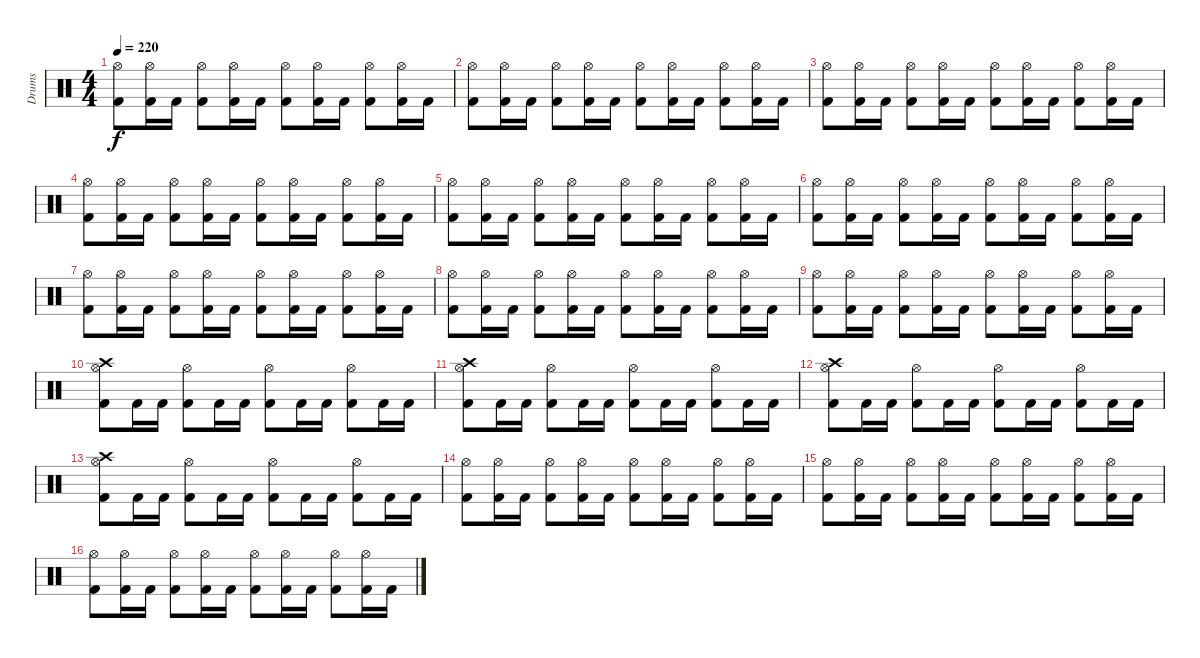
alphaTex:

\track ("Drums" "Drums") {instrument percussion}
\staff {score}
\articulation defaults
\ts (4 4)
\tempo 220
\clef neutral
\ks c
("Hi-Hat (open)" "Kick (hit) 2").8{dy f} ("Hi-Hat (open)" "Kick (hit) 2").16 "Kick (hit) 2".16 ("Hi-Hat (open)" "Kick (hit) 2").8 ("Hi-Hat (open)" "Kick (hit) 2").16 "Kick (hit) 2".16 ("Hi-Hat (open)" "Kick (hit) 2").8 ("Hi-Hat (open)" "Kick (hit) 2").16 "Kick (hit) 2".16 ("Hi-Hat (open)" "Kick (hit) 2").8 ("Hi-Hat (open)" "Kick (hit) 2").16 "Kick (hit) 2".16 |
("Hi-Hat (open)" "Kick (hit) 2").8 ("Hi-Hat (open)" "Kick (hit) 2").16 "Kick (hit) 2".16 ("Hi-Hat (open)" "Kick (hit) 2").8 ("Hi-Hat (open)" "Kick (hit) 2").16 "Kick (hit) 2".16 ("Hi-Hat (open)" "Kick (hit) 2").8 ("Hi-Hat (open)" "Kick (hit) 2").16 "Kick (hit) 2".16 ("Hi-Hat (open)" "Kick (hit) 2").8 ("Hi-Hat (open)" "Kick (hit) 2").16 "Kick (hit) 2".16 |
("Hi-Hat (open)" "Kick (hit) 2").8 ("Hi-Hat (open)" "Kick (hit) 2").16 "Kick (hit) 2".16 ("Hi-Hat (open)" "Kick (hit) 2").8 ("Hi-Hat (open)" "Kick (hit) 2").16 "Kick (hit) 2".16 ("Hi-Hat (open)" "Kick (hit) 2").8 ("Hi-Hat (open)" "Kick (hit) 2").16 "Kick (hit) 2".16 ("Hi-Hat (open)" "Kick (hit) 2").8 ("Hi-Hat (open)" "Kick (hit) 2").16 "Kick (hit) 2".16 |
("Hi-Hat (open)" "Kick (hit) 2").8 ("Hi-Hat (open)" "Kick (hit) 2").16 "Kick (hit) 2".16 ("Hi-Hat (open)" "Kick (hit) 2").8 ("Hi-Hat (open)" "Kick (hit) 2").16 "Kick (hit) 2".16 ("Hi-Hat (open)" "Kick (hit) 2").8 ("Hi-Hat (open)" "Kick (hit) 2").16 "Kick (hit) 2".16 ("Hi-Hat (open)" "Kick (hit) 2").8 ("Hi-Hat (open)" "Kick (hit) 2").16 "Kick (hit) 2".16 |
("Hi-Hat (open)" "Kick (hit) 2").8 ("Hi-Hat (open)" "Kick (hit) 2").16 "Kick (hit) 2".16 ("Hi-Hat (open)" "Kick (hit) 2").8 ("Hi-Hat (open)" "Kick (hit) 2").16 "Kick (hit) 2".16 ("Hi-Hat (open)" "Kick (hit) 2").8 ("Hi-Hat (open)" "Kick (hit) 2").16 "Kick (hit) 2".16 ("Hi-Hat (open)" "Kick (hit) 2").8 ("Hi-Hat (open)" "Kick (hit) 2").16 "Kick (hit) 2".16 |
("Hi-Hat (open)" "Kick (hit) 2").8 ("Hi-Hat (open)" "Kick (hit) 2").16 "Kick (hit) 2".16 ("Hi-Hat (open)" "Kick (hit) 2").8 ("Hi-Hat (open)" "Kick (hit) 2").16 "Kick (hit) 2".16 ("Hi-Hat (open)" "Kick (hit) 2").8 ("Hi-Hat (open)" "Kick (hit) 2").16 "Kick (hit) 2".16 ("Hi-Hat (open)" "Kick (hit) 2").8 ("Hi-Hat (open)" "Kick (hit) 2").16 "Kick (hit) 2".16 |
("Hi-Hat (open)" "Kick (hit) 2").8 ("Hi-Hat (open)" "Kick (hit) 2").16 "Kick (hit) 2".16 ("Hi-Hat (open)" "Kick (hit) 2").8 ("Hi-Hat (open)" "Kick (hit) 2").16 "Kick (hit) 2".16 ("Hi-Hat (open)" "Kick (hit) 2").8 ("Hi-Hat (open)" "Kick (hit) 2").16 "Kick (hit) 2".16 ("Hi-Hat (open)" "Kick (hit) 2").8 ("Hi-Hat (open)" "Kick (hit) 2").16 "Kick (hit) 2".16 |
("Hi-Hat (open)" "Kick (hit) 2").8 ("Hi-Hat (open)" "Kick (hit) 2").16 "Kick (hit) 2".16 ("Hi-Hat (open)" "Kick (hit) 2").8 ("Hi-Hat (open)" "Kick (hit) 2").16 "Kick (hit) 2".16 ("Hi-Hat (open)" "Kick (hit) 2").8 ("Hi-Hat (open)" "Kick (hit) 2").16 "Kick (hit) 2".16 ("Hi-Hat (open)" "Kick (hit) 2").8 ("Hi-Hat (open)" "Kick (hit) 2").16 "Kick (hit) 2".16 |
("Hi-Hat (open)" "Kick (hit) 2").8 ("Hi-Hat (open)" "Kick (hit) 2").16 "Kick (hit) 2".16 ("Hi-Hat (open)" "Kick (hit) 2").8 ("Hi-Hat (open)" "Kick (hit) 2").16 "Kick (hit) 2".16 ("Hi-Hat (open)" "Kick (hit) 2").8 ("Hi-Hat (open)" "Kick (hit) 2").16 "Kick (hit) 2".16 ("Hi-Hat (open)" "Kick (hit) 2").8 ("Hi-Hat (open)" "Kick (hit) 2").16 "Kick (hit) 2".16 |
("Crash high (hit)" "Hi-Hat (open)" "Kick (hit) 2").8 "Kick (hit) 2".16 "Kick (hit) 2".16 ("Hi-Hat (open)" "Kick (hit) 2").8 "Kick (hit) 2".16 "Kick (hit) 2".16 ("Hi-Hat (open)" "Kick (hit) 2").8 "Kick (hit) 2".16 "Kick (hit) 2".16 ("Hi-Hat (open)" "Kick (hit) 2").8 "Kick (hit) 2".16 "Kick (hit) 2".16 |
("Crash high (hit)" "Hi-Hat (open)" "Kick (hit) 2").8 "Kick (hit) 2".16 "Kick (hit) 2".16 ("Hi-Hat (open)" "Kick (hit) 2").8 "Kick (hit) 2".16 "Kick (hit) 2".16 ("Hi-Hat (open)" "Kick (hit) 2").8 "Kick (hit) 2".16 "Kick (hit) 2".16 ("Hi-Hat (open)" "Kick (hit) 2").8 "Kick (hit) 2".16 "Kick (hit) 2".16 |
("Crash high (hit)" "Hi-Hat (open)" "Kick (hit) 2").8 "Kick (hit) 2".16 "Kick (hit) 2".16 ("Hi-Hat (open)" "Kick (hit) 2").8 "Kick (hit) 2".16 "Kick (hit) 2".16 ("Hi-Hat (open)" "Kick (hit) 2").8 "Kick (hit) 2".16 "Kick (hit) 2".16 ("Hi-Hat (open)" "Kick (hit) 2").8 "Kick (hit) 2".16 "Kick (hit) 2".16 |
("Crash high (hit)" "Hi-Hat (open)" "Kick (hit) 2").8 "Kick (hit) 2".16 "Kick (hit) 2".16 ("Hi-Hat (open)" "Kick (hit) 2").8 "Kick (hit) 2".16 "Kick (hit) 2".16 ("Hi-Hat (open)" "Kick (hit) 2").8 "Kick (hit) 2".16 "Kick (hit) 2".16 ("Hi-Hat (open)" "Kick (hit) 2").8 "Kick (hit) 2".16 "Kick (hit) 2".16 |
("Hi-Hat (open)" "Kick (hit) 2").8 ("Hi-Hat (open)" "Kick (hit) 2").16 "Kick (hit) 2".16 ("Hi-Hat (open)" "Kick (hit) 2").8 ("Hi-Hat (open)" "Kick (hit) 2").16 "Kick (hit) 2".16 ("Hi-Hat (open)" "Kick (hit) 2").8 ("Hi-Hat (open)" "Kick (hit) 2").16 "Kick (hit) 2".16 ("Hi-Hat (open)" "Kick (hit) 2").8 ("Hi-Hat (open)" "Kick (hit) 2").16 "Kick (hit) 2".16 |
("Hi-Hat (open)" "Kick (hit) 2").8 ("Hi-Hat (open)" "Kick (hit) 2").16 "Kick (hit) 2".16 ("Hi-Hat (open)" "Kick (hit) 2").8 ("Hi-Hat (open)" "Kick (hit) 2").16 "Kick (hit) 2".16 ("Hi-Hat (open)" "Kick (hit) 2").8 ("Hi-Hat (open)" "Kick (hit) 2").16 "Kick (hit) 2".16 ("Hi-Hat (open)" "Kick (hit) 2").8 ("Hi-Hat (open)" "Kick (hit) 2").16 "Kick (hit) 2".16 |
("Hi-Hat (open)" "Kick (hit) 2").8 ("Hi-Hat (open)" "Kick (hit) 2").16 "Kick (hit) 2".16 ("Hi-Hat (open)" "Kick (hit) 2").8 ("Hi-Hat (open)" "Kick (hit) 2").16 "Kick (hit) 2".16 ("Hi-Hat (open)" "Kick (hit) 2").8 ("Hi-Hat (open)" "Kick (hit) 2").16 "Kick (hit) 2".16 ("Hi-Hat (open)" "Kick (hit) 2").8 ("Hi-Hat (open)" "Kick (hit) 2").16 "Kick (hit) 2".16
